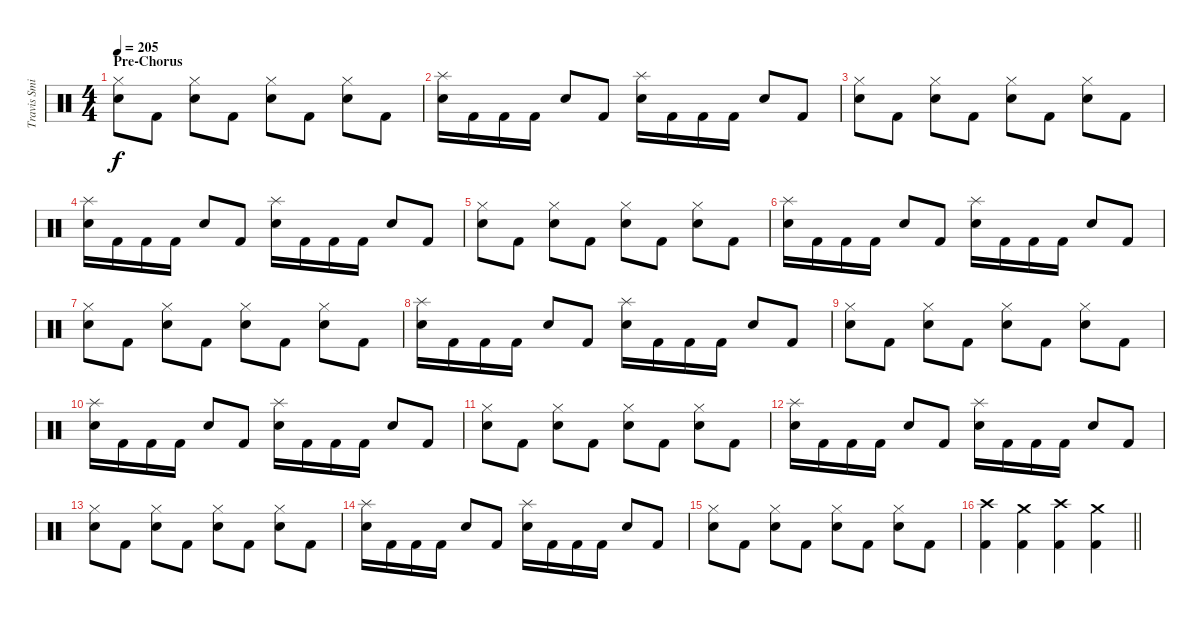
\track ("Travis Smith" "Travis Smi") {instrument percussion}
\staff {score}
\articulation defaults
\ts (4 4)
\section ("" "Pre-Chorus")
\tempo 205
\clef neutral
\ks c
("Hi-Hat (closed)" "Snare (hit) 2").8{dy f} "Kick (hit) 2".8 ("Hi-Hat (closed)" "Snare (hit) 2").8 "Kick (hit) 2".8 ("Hi-Hat (closed)" "Snare (hit) 2").8 "Kick (hit) 2".8 ("Hi-Hat (closed)" "Snare (hit) 2").8 "Kick (hit) 2".8 |
("Splash (hit)" "Snare (hit) 2").16 "Kick (hit) 2".16 "Kick (hit) 2".16 "Kick (hit) 2".16 "Snare (hit) 2".8 "Kick (hit) 2".8 ("Splash (hit)" "Snare (hit) 2").16 "Kick (hit) 2".16 "Kick (hit) 2".16 "Kick (hit) 2".16 "Snare (hit) 2".8 "Kick (hit) 2".8 |
("Hi-Hat (closed)" "Snare (hit) 2").8 "Kick (hit) 2".8 ("Hi-Hat (closed)" "Snare (hit) 2").8 "Kick (hit) 2".8 ("Hi-Hat (closed)" "Snare (hit) 2").8 "Kick (hit) 2".8 ("Hi-Hat (closed)" "Snare (hit) 2").8 "Kick (hit) 2".8 |
("Splash (hit)" "Snare (hit) 2").16 "Kick (hit) 2".16 "Kick (hit) 2".16 "Kick (hit) 2".16 "Snare (hit) 2".8 "Kick (hit) 2".8 ("Splash (hit)" "Snare (hit) 2").16 "Kick (hit) 2".16 "Kick (hit) 2".16 "Kick (hit) 2".16 "Snare (hit) 2".8 "Kick (hit) 2".8 |
("Hi-Hat (closed)" "Snare (hit) 2").8 "Kick (hit) 2".8 ("Hi-Hat (closed)" "Snare (hit) 2").8 "Kick (hit) 2".8 ("Hi-Hat (closed)" "Snare (hit) 2").8 "Kick (hit) 2".8 ("Hi-Hat (closed)" "Snare (hit) 2").8 "Kick (hit) 2".8 |
("Splash (hit)" "Snare (hit) 2").16 "Kick (hit) 2".16 "Kick (hit) 2".16 "Kick (hit) 2".16 "Snare (hit) 2".8 "Kick (hit) 2".8 ("Splash (hit)" "Snare (hit) 2").16 "Kick (hit) 2".16 "Kick (hit) 2".16 "Kick (hit) 2".16 "Snare (hit) 2".8 "Kick (hit) 2".8 |
("Hi-Hat (closed)" "Snare (hit) 2").8 "Kick (hit) 2".8 ("Hi-Hat (closed)" "Snare (hit) 2").8 "Kick (hit) 2".8 ("Hi-Hat (closed)" "Snare (hit) 2").8 "Kick (hit) 2".8 ("Hi-Hat (closed)" "Snare (hit) 2").8 "Kick (hit) 2".8 |
("Splash (hit)" "Snare (hit) 2").16 "Kick (hit) 2".16 "Kick (hit) 2".16 "Kick (hit) 2".16 "Snare (hit) 2".8 "Kick (hit) 2".8 ("Splash (hit)" "Snare (hit) 2").16 "Kick (hit) 2".16 "Kick (hit) 2".16 "Kick (hit) 2".16 "Snare (hit) 2".8 "Kick (hit) 2".8 |
("Hi-Hat (closed)" "Snare (hit) 2").8 "Kick (hit) 2".8 ("Hi-Hat (closed)" "Snare (hit) 2").8 "Kick (hit) 2".8 ("Hi-Hat (closed)" "Snare (hit) 2").8 "Kick (hit) 2".8 ("Hi-Hat (closed)" "Snare (hit) 2").8 "Kick (hit) 2".8 |
("Splash (hit)" "Snare (hit) 2").16 "Kick (hit) 2".16 "Kick (hit) 2".16 "Kick (hit) 2".16 "Snare (hit) 2".8 "Kick (hit) 2".8 ("Splash (hit)" "Snare (hit) 2").16 "Kick (hit) 2".16 "Kick (hit) 2".16 "Kick (hit) 2".16 "Snare (hit) 2".8 "Kick (hit) 2".8 |
("Hi-Hat (closed)" "Snare (hit) 2").8 "Kick (hit) 2".8 ("Hi-Hat (closed)" "Snare (hit) 2").8 "Kick (hit) 2".8 ("Hi-Hat (closed)" "Snare (hit) 2").8 "Kick (hit) 2".8 ("Hi-Hat (closed)" "Snare (hit) 2").8 "Kick (hit) 2".8 |
("Splash (hit)" "Snare (hit) 2").16 "Kick (hit) 2".16 "Kick (hit) 2".16 "Kick (hit) 2".16 "Snare (hit) 2".8 "Kick (hit) 2".8 ("Splash (hit)" "Snare (hit) 2").16 "Kick (hit) 2".16 "Kick (hit) 2".16 "Kick (hit) 2".16 "Snare (hit) 2".8 "Kick (hit) 2".8 |
("Hi-Hat (closed)" "Snare (hit) 2").8 "Kick (hit) 2".8 ("Hi-Hat (closed)" "Snare (hit) 2").8 "Kick (hit) 2".8 ("Hi-Hat (closed)" "Snare (hit) 2").8 "Kick (hit) 2".8 ("Hi-Hat (closed)" "Snare (hit) 2").8 "Kick (hit) 2".8 |
("Splash (hit)" "Snare (hit) 2").16 "Kick (hit) 2".16 "Kick (hit) 2".16 "Kick (hit) 2".16 "Snare (hit) 2".8 "Kick (hit) 2".8 ("Splash (hit)" "Snare (hit) 2").16 "Kick (hit) 2".16 "Kick (hit) 2".16 "Kick (hit) 2".16 "Snare (hit) 2".8 "Kick (hit) 2".8 |
("Hi-Hat (closed)" "Snare (hit) 2").8 "Kick (hit) 2".8 ("Hi-Hat (closed)" "Snare (hit) 2").8 "Kick (hit) 2".8 ("Hi-Hat (closed)" "Snare (hit) 2").8 "Kick (hit) 2".8 ("Hi-Hat (closed)" "Snare (hit) 2").8 "Kick (hit) 2".8 |
\barLineRight lightlight
("Crash high (hit)" "Kick (hit) 2").4 ("Crash medium (hit)" "Kick (hit) 2").4 ("Crash high (hit)" "Kick (hit) 2").4 ("Crash medium (hit)" "Kick (hit) 2").4
